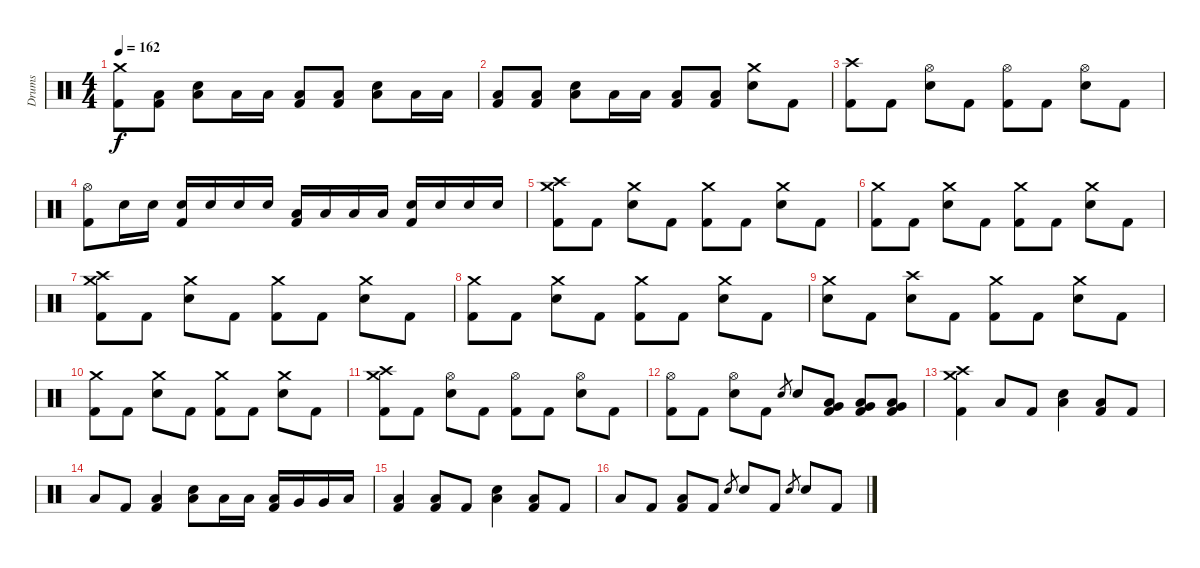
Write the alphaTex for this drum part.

\track ("Drums" "Drums") {instrument percussion}
\staff {score}
\articulation defaults
\ts (4 4)
\tempo 162
\clef neutral
\ks c
("Crash medium (hit)" "Kick (hit) 2").8{dy f} ("Low Floor Tom (hit)" "Kick (hit) 2").8 ("Low Floor Tom (hit)" "Electric Snare (hit)").8 "Low Tom (hit)".16 "Low Tom (hit)".16 ("Low Floor Tom (hit)" "Kick (hit) 2").8 ("Low Floor Tom (hit)" "Kick (hit) 2").8 ("Low Floor Tom (hit)" "Electric Snare (hit)").8 "Low Tom (hit)".16 "Low Tom (hit)".16 |
("Low Floor Tom (hit)" "Kick (hit) 2").8 ("Low Floor Tom (hit)" "Kick (hit) 2").8 ("Low Floor Tom (hit)" "Electric Snare (hit)").8 "Low Tom (hit)".16 "Low Tom (hit)".16 ("Low Floor Tom (hit)" "Kick (hit) 2").8 ("Low Floor Tom (hit)" "Kick (hit) 2").8 ("Crash medium (hit)" "Electric Snare (hit)").8 "Kick (hit) 2".8 |
("Crash high (hit)" "Kick (hit) 2").8 "Kick (hit) 2".8 ("Hi-Hat (open)" "Electric Snare (hit)").8 "Kick (hit) 2".8 ("Hi-Hat (open)" "Kick (hit) 2").8 "Kick (hit) 2".8 ("Hi-Hat (open)" "Electric Snare (hit)").8 "Kick (hit) 2".8 |
("Hi-Hat (open)" "Kick (hit) 2").8 "Electric Snare (hit)".16 "Electric Snare (hit)".16 ("Electric Snare (hit)" "Kick (hit) 2").16 "Electric Snare (hit)".16 "Electric Snare (hit)".16 "Electric Snare (hit)".16 ("Low Tom (hit)" "Kick (hit) 2").16 "Low Tom (hit)".16 "Low Tom (hit)".16 "Low Tom (hit)".16 ("Electric Snare (hit)" "Kick (hit) 2").16 "Electric Snare (hit)".16 "Electric Snare (hit)".16 "Electric Snare (hit)".16 |
("Crash medium (hit)" "Crash high (hit)" "Kick (hit) 2").8 "Kick (hit) 2".8 ("Crash medium (hit)" "Electric Snare (hit)").8 "Kick (hit) 2".8 ("Crash medium (hit)" "Kick (hit) 2").8 "Kick (hit) 2".8 ("Crash medium (hit)" "Electric Snare (hit)").8 "Kick (hit) 2".8 |
("Crash medium (hit)" "Kick (hit) 2").8 "Kick (hit) 2".8 ("Crash medium (hit)" "Electric Snare (hit)").8 "Kick (hit) 2".8 ("Crash medium (hit)" "Kick (hit) 2").8 "Kick (hit) 2".8 ("Crash medium (hit)" "Electric Snare (hit)").8 "Kick (hit) 2".8 |
("Crash medium (hit)" "Crash high (hit)" "Kick (hit) 2").8 "Kick (hit) 2".8 ("Crash medium (hit)" "Electric Snare (hit)").8 "Kick (hit) 2".8 ("Crash medium (hit)" "Kick (hit) 2").8 "Kick (hit) 2".8 ("Crash medium (hit)" "Electric Snare (hit)").8 "Kick (hit) 2".8 |
("Crash medium (hit)" "Kick (hit) 2").8 "Kick (hit) 2".8 ("Crash medium (hit)" "Electric Snare (hit)").8 "Kick (hit) 2".8 ("Crash medium (hit)" "Kick (hit) 2").8 "Kick (hit) 2".8 ("Crash medium (hit)" "Electric Snare (hit)").8 "Kick (hit) 2".8 |
("Crash medium (hit)" "Electric Snare (hit)").8 "Kick (hit) 2".8 ("Crash high (hit)" "Electric Snare (hit)").8 "Kick (hit) 2".8 ("Crash medium (hit)" "Kick (hit) 2").8 "Kick (hit) 2".8 ("Crash medium (hit)" "Electric Snare (hit)").8 "Kick (hit) 2".8 |
("Crash medium (hit)" "Kick (hit) 2").8 "Kick (hit) 2".8 ("Crash medium (hit)" "Electric Snare (hit)").8 "Kick (hit) 2".8 ("Crash medium (hit)" "Kick (hit) 2").8 "Kick (hit) 2".8 ("Crash medium (hit)" "Electric Snare (hit)").8 "Kick (hit) 2".8 |
("Crash medium (hit)" "Crash high (hit)" "Kick (hit) 2").8 "Kick (hit) 2".8 ("Hi-Hat (open)" "Electric Snare (hit)").8 "Kick (hit) 2".8 ("Hi-Hat (open)" "Kick (hit) 2").8 "Kick (hit) 2".8 ("Hi-Hat (open)" "Electric Snare (hit)").8 "Kick (hit) 2".8 |
("Hi-Hat (open)" "Kick (hit) 2").8 "Kick (hit) 2".8 ("Hi-Hat (open)" "Electric Snare (hit)").8 "Kick (hit) 2".8 "Electric Snare (hit)".8{gr} "Electric Snare (hit)".8 ("Low Floor Tom (hit)" "Very Low Tom (hit)" "Kick (hit) 2").8 ("Low Floor Tom (hit)" "Very Low Tom (hit)" "Kick (hit) 2").8 ("Low Floor Tom (hit)" "Very Low Tom (hit)" "Kick (hit) 2").8 |
("Crash medium (hit)" "Crash high (hit)" "Kick (hit) 2").4 "Low Floor Tom (hit)".8 "Kick (hit) 2".8 ("Low Floor Tom (hit)" "Electric Snare (hit)").4 ("Low Floor Tom (hit)" "Kick (hit) 2").8 "Kick (hit) 2".8 |
"Low Floor Tom (hit)".8 "Kick (hit) 2".8 ("Low Floor Tom (hit)" "Kick (hit) 2").4 ("Low Floor Tom (hit)" "Electric Snare (hit)").8 "Low Tom (hit)".16 "Low Tom (hit)".16 ("Low Tom (hit)" "Kick (hit) 2").16 "Very Low Tom (hit)".16 "Very Low Tom (hit)".16 "Low Floor Tom (hit)".16 |
("Low Floor Tom (hit)" "Kick (hit) 2").4 ("Low Floor Tom (hit)" "Kick (hit) 2").8 "Kick (hit) 2".8 ("Low Floor Tom (hit)" "Electric Snare (hit)").4 ("Low Floor Tom (hit)" "Kick (hit) 2").8 "Kick (hit) 2".8 |
"Low Floor Tom (hit)".8 "Kick (hit) 2".8 ("Low Floor Tom (hit)" "Kick (hit) 2").8 "Kick (hit) 2".8 "Electric Snare (hit)".8{gr} "Electric Snare (hit)".8 "Kick (hit) 2".8 "Electric Snare (hit)".8{gr} "Electric Snare (hit)".8 "Kick (hit) 2".8
